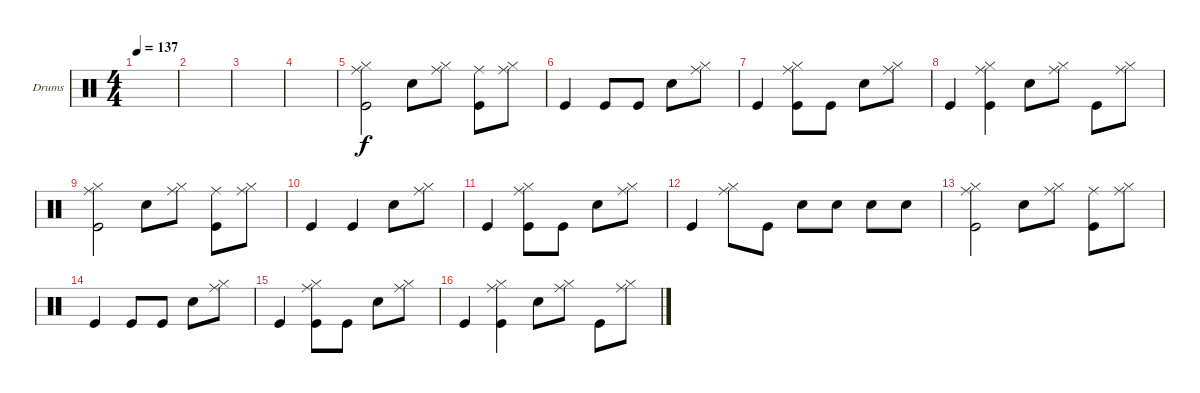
\defaultSystemsLayout 4
\bracketExtendMode groupsimilarinstruments
\firstSystemTrackNameOrientation horizontal
\otherSystemsTrackNameOrientation horizontal
\track ("Drumkit" "Drums") {instrument percussion}
\staff {score}
\articulation defaults
\ts (4 4)
\tempo 137
\clef neutral
\ks c
|
|
|
|
("Kick (hit)" "Ride (middle)" "Hi-Hat (closed)").2 "Snare (hit) 2".8 ("Hi-Hat (closed)" "Ride (middle)").8 ("Kick (hit)" "Ride (middle)").8 ("Hi-Hat (closed)" "Ride (middle)").8 |
"Kick (hit)".4 "Kick (hit)".8 "Kick (hit)".8 "Snare (hit) 2".8 ("Hi-Hat (closed)" "Ride (middle)").8 |
"Kick (hit)".4 ("Kick (hit)" "Ride (middle)" "Hi-Hat (closed)").8 "Kick (hit)".8 "Snare (hit) 2".8 ("Hi-Hat (closed)" "Ride (middle)").8 |
"Kick (hit)".4 ("Kick (hit)" "Ride (middle)" "Hi-Hat (closed)").4 "Snare (hit) 2".8 ("Ride (middle)" "Hi-Hat (closed)").8 "Kick (hit)".8 ("Ride (middle)" "Hi-Hat (closed)").8 |
("Kick (hit)" "Ride (middle)" "Hi-Hat (closed)").2 "Snare (hit) 2".8 ("Hi-Hat (closed)" "Ride (middle)").8 ("Kick (hit)" "Ride (middle)").8 ("Hi-Hat (closed)" "Ride (middle)").8 |
"Kick (hit)".4 "Kick (hit)".4 "Snare (hit) 2".8 ("Hi-Hat (closed)" "Ride (middle)").8 |
"Kick (hit)".4 ("Kick (hit)" "Ride (middle)" "Hi-Hat (closed)").8 "Kick (hit)".8 "Snare (hit) 2".8 ("Hi-Hat (closed)" "Ride (middle)").8 |
"Kick (hit)".4 ("Ride (middle)" "Hi-Hat (closed)").8 "Kick (hit)".8 "Snare (hit) 2".8 "Snare (hit) 2".8 "Snare (hit) 2".8 "Snare (hit) 2".8 |
("Kick (hit)" "Ride (middle)" "Hi-Hat (closed)").2 "Snare (hit) 2".8 ("Hi-Hat (closed)" "Ride (middle)").8 ("Kick (hit)" "Ride (middle)").8 ("Hi-Hat (closed)" "Ride (middle)").8 |
"Kick (hit)".4 "Kick (hit)".8 "Kick (hit)".8 "Snare (hit) 2".8 ("Hi-Hat (closed)" "Ride (middle)").8 |
"Kick (hit)".4 ("Kick (hit)" "Ride (middle)" "Hi-Hat (closed)").8 "Kick (hit)".8 "Snare (hit) 2".8 ("Hi-Hat (closed)" "Ride (middle)").8 |
"Kick (hit)".4 ("Kick (hit)" "Ride (middle)" "Hi-Hat (closed)").4 "Snare (hit) 2".8 ("Ride (middle)" "Hi-Hat (closed)").8 "Kick (hit)".8 ("Ride (middle)" "Hi-Hat (closed)").8
